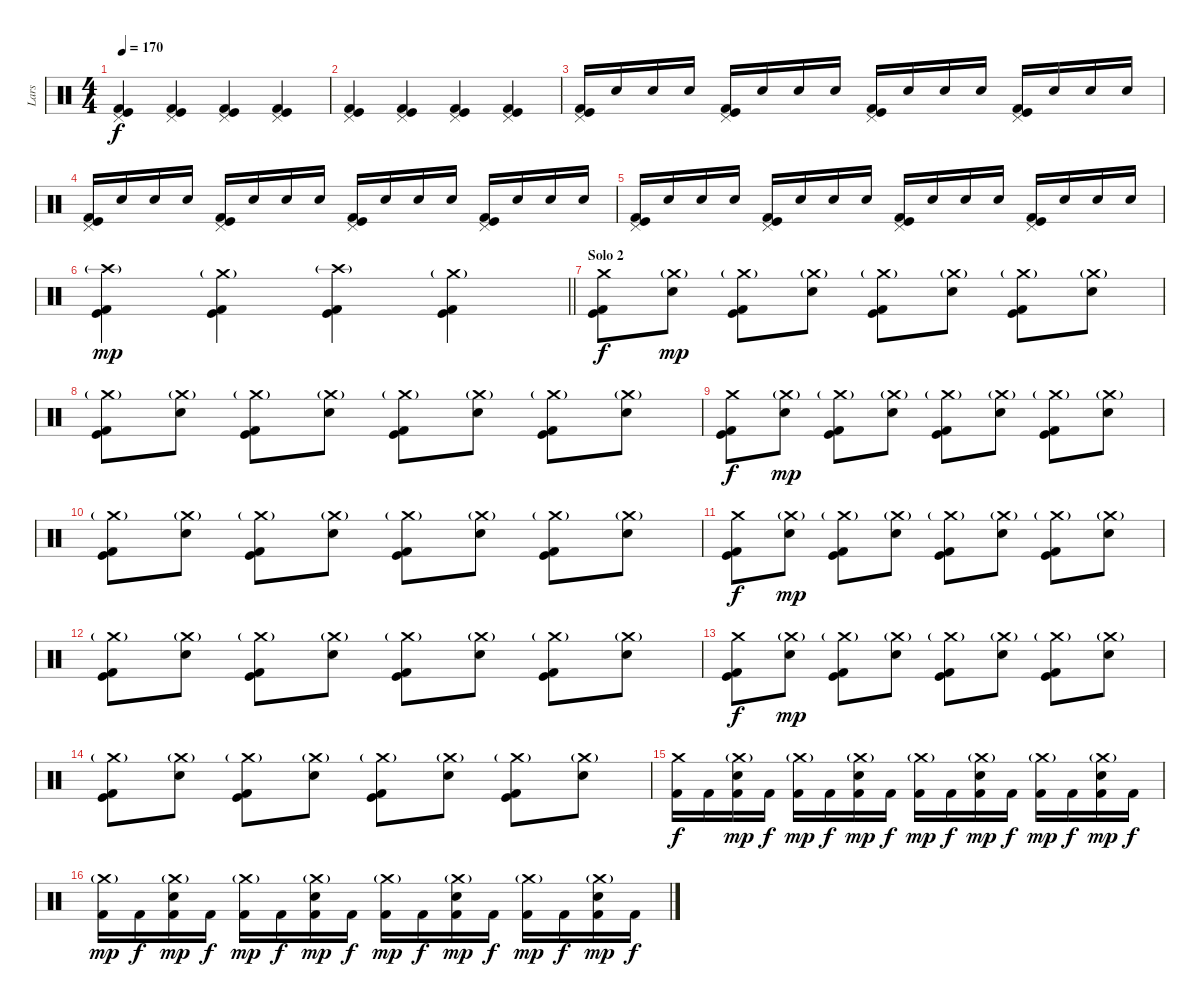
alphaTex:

\track ("Lars" "Lars") {instrument percussion}
\staff {score}
\articulation defaults
\ts (4 4)
\tempo 170
\clef neutral
\ks c
("Pedal Hi-Hat (hit)" "Kick (hit)" "Kick (hit) 2").4{dy f} ("Pedal Hi-Hat (hit)" "Kick (hit)" "Kick (hit) 2").4 ("Pedal Hi-Hat (hit)" "Kick (hit)" "Kick (hit) 2").4 ("Pedal Hi-Hat (hit)" "Kick (hit)" "Kick (hit) 2").4 |
("Pedal Hi-Hat (hit)" "Kick (hit)" "Kick (hit) 2").4 ("Pedal Hi-Hat (hit)" "Kick (hit)" "Kick (hit) 2").4 ("Pedal Hi-Hat (hit)" "Kick (hit)" "Kick (hit) 2").4 ("Pedal Hi-Hat (hit)" "Kick (hit)" "Kick (hit) 2").4 |
("Pedal Hi-Hat (hit)" "Kick (hit)" "Kick (hit) 2").16 "Electric Snare (hit)".16 "Electric Snare (hit)".16 "Electric Snare (hit)".16 ("Pedal Hi-Hat (hit)" "Kick (hit)" "Kick (hit) 2").16 "Electric Snare (hit)".16 "Electric Snare (hit)".16 "Electric Snare (hit)".16 ("Pedal Hi-Hat (hit)" "Kick (hit)" "Kick (hit) 2").16 "Electric Snare (hit)".16 "Electric Snare (hit)".16 "Electric Snare (hit)".16 ("Pedal Hi-Hat (hit)" "Kick (hit)" "Kick (hit) 2").16 "Electric Snare (hit)".16 "Electric Snare (hit)".16 "Electric Snare (hit)".16 |
("Pedal Hi-Hat (hit)" "Kick (hit)" "Kick (hit) 2").16 "Electric Snare (hit)".16 "Electric Snare (hit)".16 "Electric Snare (hit)".16 ("Pedal Hi-Hat (hit)" "Kick (hit)" "Kick (hit) 2").16 "Electric Snare (hit)".16 "Electric Snare (hit)".16 "Electric Snare (hit)".16 ("Pedal Hi-Hat (hit)" "Kick (hit)" "Kick (hit) 2").16 "Electric Snare (hit)".16 "Electric Snare (hit)".16 "Electric Snare (hit)".16 ("Pedal Hi-Hat (hit)" "Kick (hit)" "Kick (hit) 2").16 "Electric Snare (hit)".16 "Electric Snare (hit)".16 "Electric Snare (hit)".16 |
("Pedal Hi-Hat (hit)" "Kick (hit)" "Kick (hit) 2").16 "Electric Snare (hit)".16 "Electric Snare (hit)".16 "Electric Snare (hit)".16 ("Pedal Hi-Hat (hit)" "Kick (hit)" "Kick (hit) 2").16 "Electric Snare (hit)".16 "Electric Snare (hit)".16 "Electric Snare (hit)".16 ("Pedal Hi-Hat (hit)" "Kick (hit)" "Kick (hit) 2").16 "Electric Snare (hit)".16 "Electric Snare (hit)".16 "Electric Snare (hit)".16 ("Pedal Hi-Hat (hit)" "Kick (hit)" "Kick (hit) 2").16 "Electric Snare (hit)".16 "Electric Snare (hit)".16 "Electric Snare (hit)".16 |
\barLineRight lightlight
("Crash high (hit)"{g} "Kick (hit)" "Kick (hit) 2").4{dy mp} ("Crash medium (hit)"{g} "Kick (hit)" "Kick (hit) 2").4 ("Crash high (hit)"{g} "Kick (hit)" "Kick (hit) 2").4 ("Crash medium (hit)"{g} "Kick (hit)" "Kick (hit) 2").4 |
\section ("" "Solo 2")
("Crash medium (hit)" "Kick (hit)" "Kick (hit) 2").8{dy f} ("Crash medium (hit)"{g} "Electric Snare (hit)").8{dy mp} ("Crash medium (hit)"{g} "Kick (hit)" "Kick (hit) 2").8 ("Crash medium (hit)"{g} "Electric Snare (hit)").8 ("Crash medium (hit)"{g} "Kick (hit)" "Kick (hit) 2").8 ("Crash medium (hit)"{g} "Electric Snare (hit)").8 ("Crash medium (hit)"{g} "Kick (hit)" "Kick (hit) 2").8 ("Crash medium (hit)"{g} "Electric Snare (hit)").8 |
("Crash medium (hit)"{g} "Kick (hit)" "Kick (hit) 2").8 ("Crash medium (hit)"{g} "Electric Snare (hit)").8 ("Crash medium (hit)"{g} "Kick (hit)" "Kick (hit) 2").8 ("Crash medium (hit)"{g} "Electric Snare (hit)").8 ("Crash medium (hit)"{g} "Kick (hit)" "Kick (hit) 2").8 ("Crash medium (hit)"{g} "Electric Snare (hit)").8 ("Crash medium (hit)"{g} "Kick (hit)" "Kick (hit) 2").8 ("Crash medium (hit)"{g} "Electric Snare (hit)").8 |
("Crash medium (hit)" "Kick (hit)" "Kick (hit) 2").8{dy f} ("Crash medium (hit)"{g} "Electric Snare (hit)").8{dy mp} ("Crash medium (hit)"{g} "Kick (hit)" "Kick (hit) 2").8 ("Crash medium (hit)"{g} "Electric Snare (hit)").8 ("Crash medium (hit)"{g} "Kick (hit)" "Kick (hit) 2").8 ("Crash medium (hit)"{g} "Electric Snare (hit)").8 ("Crash medium (hit)"{g} "Kick (hit)" "Kick (hit) 2").8 ("Crash medium (hit)"{g} "Electric Snare (hit)").8 |
("Crash medium (hit)"{g} "Kick (hit)" "Kick (hit) 2").8 ("Crash medium (hit)"{g} "Electric Snare (hit)").8 ("Crash medium (hit)"{g} "Kick (hit)" "Kick (hit) 2").8 ("Crash medium (hit)"{g} "Electric Snare (hit)").8 ("Crash medium (hit)"{g} "Kick (hit)" "Kick (hit) 2").8 ("Crash medium (hit)"{g} "Electric Snare (hit)").8 ("Crash medium (hit)"{g} "Kick (hit)" "Kick (hit) 2").8 ("Crash medium (hit)"{g} "Electric Snare (hit)").8 |
("Crash medium (hit)" "Kick (hit)" "Kick (hit) 2").8{dy f} ("Crash medium (hit)"{g} "Electric Snare (hit)").8{dy mp} ("Crash medium (hit)"{g} "Kick (hit)" "Kick (hit) 2").8 ("Crash medium (hit)"{g} "Electric Snare (hit)").8 ("Crash medium (hit)"{g} "Kick (hit)" "Kick (hit) 2").8 ("Crash medium (hit)"{g} "Electric Snare (hit)").8 ("Crash medium (hit)"{g} "Kick (hit)" "Kick (hit) 2").8 ("Crash medium (hit)"{g} "Electric Snare (hit)").8 |
("Crash medium (hit)"{g} "Kick (hit)" "Kick (hit) 2").8 ("Crash medium (hit)"{g} "Electric Snare (hit)").8 ("Crash medium (hit)"{g} "Kick (hit)" "Kick (hit) 2").8 ("Crash medium (hit)"{g} "Electric Snare (hit)").8 ("Crash medium (hit)"{g} "Kick (hit)" "Kick (hit) 2").8 ("Crash medium (hit)"{g} "Electric Snare (hit)").8 ("Crash medium (hit)"{g} "Kick (hit)" "Kick (hit) 2").8 ("Crash medium (hit)"{g} "Electric Snare (hit)").8 |
("Crash medium (hit)" "Kick (hit)" "Kick (hit) 2").8{dy f} ("Crash medium (hit)"{g} "Electric Snare (hit)").8{dy mp} ("Crash medium (hit)"{g} "Kick (hit)" "Kick (hit) 2").8 ("Crash medium (hit)"{g} "Electric Snare (hit)").8 ("Crash medium (hit)"{g} "Kick (hit)" "Kick (hit) 2").8 ("Crash medium (hit)"{g} "Electric Snare (hit)").8 ("Crash medium (hit)"{g} "Kick (hit)" "Kick (hit) 2").8 ("Crash medium (hit)"{g} "Electric Snare (hit)").8 |
("Crash medium (hit)"{g} "Kick (hit)" "Kick (hit) 2").8 ("Crash medium (hit)"{g} "Electric Snare (hit)").8 ("Crash medium (hit)"{g} "Kick (hit)" "Kick (hit) 2").8 ("Crash medium (hit)"{g} "Electric Snare (hit)").8 ("Crash medium (hit)"{g} "Kick (hit)" "Kick (hit) 2").8 ("Crash medium (hit)"{g} "Electric Snare (hit)").8 ("Crash medium (hit)"{g} "Kick (hit)" "Kick (hit) 2").8 ("Crash medium (hit)"{g} "Electric Snare (hit)").8 |
("Crash medium (hit)" "Kick (hit) 2").16{dy f} "Kick (hit) 2".16 ("Crash medium (hit)"{g} "Electric Snare (hit)" "Kick (hit) 2").16{dy mp} "Kick (hit) 2".16{dy f} ("Crash medium (hit)"{g} "Kick (hit) 2").16{dy mp} "Kick (hit) 2".16{dy f} ("Crash medium (hit)"{g} "Electric Snare (hit)" "Kick (hit) 2").16{dy mp} "Kick (hit) 2".16{dy f} ("Crash medium (hit)"{g} "Kick (hit) 2").16{dy mp} "Kick (hit) 2".16{dy f} ("Crash medium (hit)"{g} "Electric Snare (hit)" "Kick (hit) 2").16{dy mp} "Kick (hit) 2".16{dy f} ("Crash medium (hit)"{g} "Kick (hit) 2").16{dy mp} "Kick (hit) 2".16{dy f} ("Crash medium (hit)"{g} "Electric Snare (hit)" "Kick (hit) 2").16{dy mp} "Kick (hit) 2".16{dy f} |
("Crash medium (hit)"{g} "Kick (hit) 2").16{dy mp} "Kick (hit) 2".16{dy f} ("Crash medium (hit)"{g} "Electric Snare (hit)" "Kick (hit) 2").16{dy mp} "Kick (hit) 2".16{dy f} ("Crash medium (hit)"{g} "Kick (hit) 2").16{dy mp} "Kick (hit) 2".16{dy f} ("Crash medium (hit)"{g} "Electric Snare (hit)" "Kick (hit) 2").16{dy mp} "Kick (hit) 2".16{dy f} ("Crash medium (hit)"{g} "Kick (hit) 2").16{dy mp} "Kick (hit) 2".16{dy f} ("Crash medium (hit)"{g} "Electric Snare (hit)" "Kick (hit) 2").16{dy mp} "Kick (hit) 2".16{dy f} ("Crash medium (hit)"{g} "Kick (hit) 2").16{dy mp} "Kick (hit) 2".16{dy f} ("Crash medium (hit)"{g} "Electric Snare (hit)" "Kick (hit) 2").16{dy mp} "Kick (hit) 2".16{dy f}
